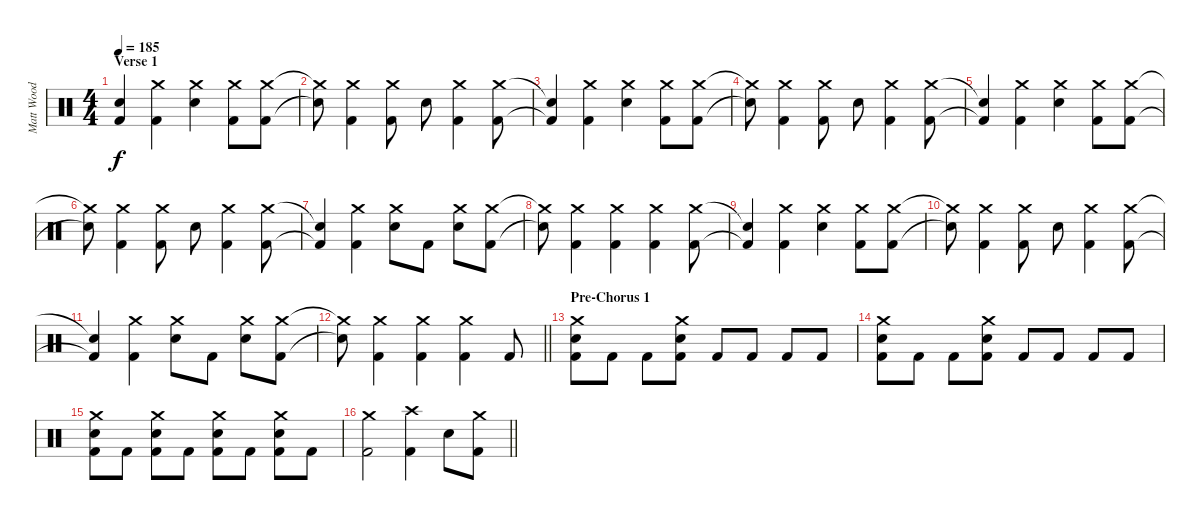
\track ("Matt Wood" "Matt Wood") {instrument percussion}
\staff {score}
\articulation defaults
\ts (4 4)
\section ("" "Verse 1")
\tempo 185
\clef neutral
\ks c
("Snare (hit)"{t} "Kick (hit) 2"{t}).4{dy f} ("Crash medium (hit)" "Kick (hit) 2").4 ("Crash medium (hit)" "Snare (hit) 2").4 ("Crash medium (hit)" "Kick (hit) 2").8 ("Crash medium (hit)" "Kick (hit) 2").8 |
("Crash medium (hit)"{t} "Snare (hit)"{t}).8 ("Crash medium (hit)" "Kick (hit) 2").4 ("Crash medium (hit)" "Kick (hit) 2").8 "Snare (hit) 2".8 ("Crash medium (hit)" "Kick (hit) 2").4 ("Crash medium (hit)" "Kick (hit) 2").8 |
("Snare (hit)"{t} "Kick (hit) 2"{t}).4 ("Crash medium (hit)" "Kick (hit) 2").4 ("Crash medium (hit)" "Snare (hit) 2").4 ("Crash medium (hit)" "Kick (hit) 2").8 ("Crash medium (hit)" "Kick (hit) 2").8 |
("Crash medium (hit)"{t} "Snare (hit)"{t}).8 ("Crash medium (hit)" "Kick (hit) 2").4 ("Crash medium (hit)" "Kick (hit) 2").8 "Snare (hit) 2".8 ("Crash medium (hit)" "Kick (hit) 2").4 ("Crash medium (hit)" "Kick (hit) 2").8 |
("Snare (hit)"{t} "Kick (hit) 2"{t}).4 ("Crash medium (hit)" "Kick (hit) 2").4 ("Crash medium (hit)" "Snare (hit) 2").4 ("Crash medium (hit)" "Kick (hit) 2").8 ("Crash medium (hit)" "Kick (hit) 2").8 |
("Crash medium (hit)"{t} "Snare (hit)"{t}).8 ("Crash medium (hit)" "Kick (hit) 2").4 ("Crash medium (hit)" "Kick (hit) 2").8 "Snare (hit) 2".8 ("Crash medium (hit)" "Kick (hit) 2").4 ("Crash medium (hit)" "Kick (hit) 2").8 |
("Snare (hit)"{t} "Kick (hit) 2"{t}).4 ("Crash medium (hit)" "Kick (hit) 2").4 ("Crash medium (hit)" "Snare (hit) 2").8 "Kick (hit) 2".8 ("Crash medium (hit)" "Snare (hit) 2").8 ("Crash medium (hit)" "Kick (hit) 2").8 |
("Crash medium (hit)"{t} "Snare (hit)"{t}).8 ("Crash medium (hit)" "Kick (hit) 2").4 ("Crash medium (hit)" "Kick (hit) 2").4 ("Crash medium (hit)" "Kick (hit) 2").4 ("Crash medium (hit)" "Kick (hit) 2").8 |
("Snare (hit)"{t} "Kick (hit) 2"{t}).4 ("Crash medium (hit)" "Kick (hit) 2").4 ("Crash medium (hit)" "Snare (hit) 2").4 ("Crash medium (hit)" "Kick (hit) 2").8 ("Crash medium (hit)" "Kick (hit) 2").8 |
("Crash medium (hit)"{t} "Snare (hit)"{t}).8 ("Crash medium (hit)" "Kick (hit) 2").4 ("Crash medium (hit)" "Kick (hit) 2").8 "Snare (hit) 2".8 ("Crash medium (hit)" "Kick (hit) 2").4 ("Crash medium (hit)" "Kick (hit) 2").8 |
("Snare (hit)"{t} "Kick (hit) 2"{t}).4 ("Crash medium (hit)" "Kick (hit) 2").4 ("Crash medium (hit)" "Snare (hit) 2").8 "Kick (hit) 2".8 ("Crash medium (hit)" "Snare (hit) 2").8 ("Crash medium (hit)" "Kick (hit) 2").8 |
\barLineRight lightlight
("Crash medium (hit)"{t} "Snare (hit)"{t}).8 ("Crash medium (hit)" "Kick (hit) 2").4 ("Crash medium (hit)" "Kick (hit) 2").4 ("Crash medium (hit)" "Kick (hit) 2").4 "Kick (hit) 2".8 |
\section ("" "Pre-Chorus 1")
("Crash medium (hit)" "Snare (hit) 2" "Kick (hit) 2").8 "Kick (hit) 2".8 "Kick (hit) 2".8 ("Crash medium (hit)" "Snare (hit) 2" "Kick (hit) 2").8 "Kick (hit) 2".8 "Kick (hit) 2".8 "Kick (hit) 2".8 "Kick (hit) 2".8 |
("Crash medium (hit)" "Snare (hit) 2" "Kick (hit) 2").8 "Kick (hit) 2".8 "Kick (hit) 2".8 ("Crash medium (hit)" "Snare (hit) 2" "Kick (hit) 2").8 "Kick (hit) 2".8 "Kick (hit) 2".8 "Kick (hit) 2".8 "Kick (hit) 2".8 |
("Crash medium (hit)" "Snare (hit) 2" "Kick (hit) 2").8 "Kick (hit) 2".8 ("Crash medium (hit)" "Snare (hit) 2" "Kick (hit) 2").8 "Kick (hit) 2".8 ("Crash medium (hit)" "Snare (hit) 2" "Kick (hit) 2").8 "Kick (hit) 2".8 ("Crash medium (hit)" "Snare (hit) 2" "Kick (hit) 2").8 "Kick (hit) 2".8 |
\barLineRight lightlight
("Crash medium (hit)" "Kick (hit) 2").2 ("Crash high (hit)" "Kick (hit) 2").4 "Snare (hit) 2".8 ("Crash medium (hit)" "Kick (hit) 2").8
